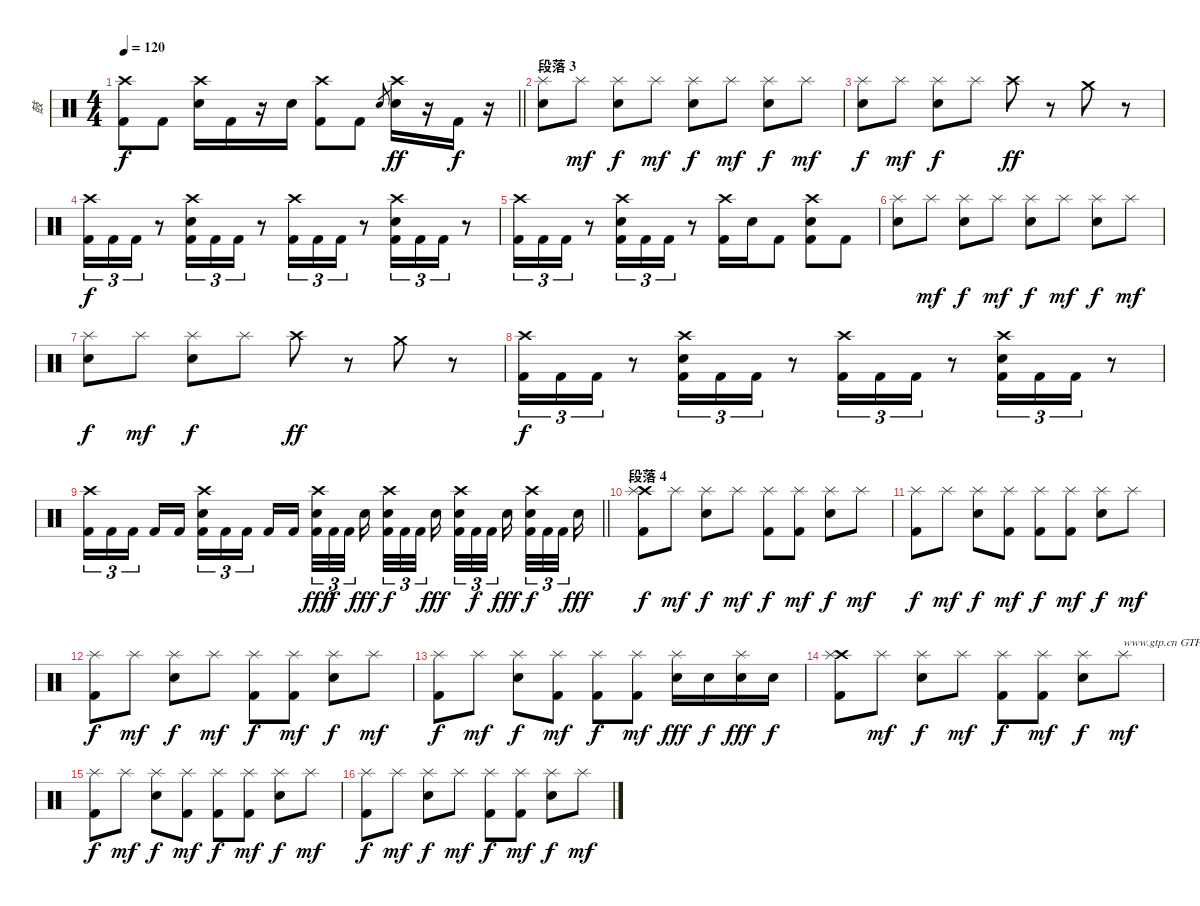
\track ("鼓" "鼓") {instrument percussion}
\staff {score}
\articulation defaults
\ts (4 4)
\tempo 120
\clef neutral
\barLineRight lightlight
\ks c
("Crash high (hit)" "Kick (hit) 2").8{dy f} "Kick (hit) 2".8 ("Crash high (hit)" "Electric Snare (hit)").16 "Kick (hit) 2".16 r.16 "Electric Snare (hit)".16 ("Crash high (hit)" "Kick (hit) 2").8 "Kick (hit) 2".8 "Electric Snare (hit)".8{gr} ("Crash high (hit)" "Electric Snare (hit)").16{dy ff} r.16 "Kick (hit) 2".16{dy f} r.16 |
\section ("" "段落 3")
("Electric Snare (hit)" "Splash (hit)").8 "Splash (hit)".8{dy mf} ("Electric Snare (hit)" "Splash (hit)").8{dy f} "Splash (hit)".8{dy mf} ("Electric Snare (hit)" "Splash (hit)").8{dy f} "Splash (hit)".8{dy mf} ("Electric Snare (hit)" "Splash (hit)").8{dy f} "Splash (hit)".8{dy mf} |
("Electric Snare (hit)" "Splash (hit)").8{dy f} "Splash (hit)".8{dy mf} ("Electric Snare (hit)" "Splash (hit)").8{dy f} "Splash (hit)".8 "Crash high (hit)".8{dy ff} r.8 "Crash medium (hit)".8 r.8 |
("Crash high (hit)" "Kick (hit) 2").16{tu (3 2) dy f} "Kick (hit) 2".16{tu (3 2)} "Kick (hit) 2".16{tu (3 2)} r.8 ("Crash high (hit)" "Electric Snare (hit)" "Kick (hit) 2").16{tu (3 2)} "Kick (hit) 2".16{tu (3 2)} "Kick (hit) 2".16{tu (3 2)} r.8 ("Crash high (hit)" "Kick (hit) 2").16{tu (3 2)} "Kick (hit) 2".16{tu (3 2)} "Kick (hit) 2".16{tu (3 2)} r.8 ("Crash high (hit)" "Electric Snare (hit)" "Kick (hit) 2").16{tu (3 2)} "Kick (hit) 2".16{tu (3 2)} "Kick (hit) 2".16{tu (3 2)} r.8 |
("Crash high (hit)" "Kick (hit) 2").16{tu (3 2)} "Kick (hit) 2".16{tu (3 2)} "Kick (hit) 2".16{tu (3 2)} r.8 ("Crash high (hit)" "Electric Snare (hit)" "Kick (hit) 2").16{tu (3 2)} "Kick (hit) 2".16{tu (3 2)} "Kick (hit) 2".16{tu (3 2)} r.8 ("Crash high (hit)" "Kick (hit) 2").16 "Electric Snare (hit)".16 "Kick (hit) 2".8 ("Crash high (hit)" "Electric Snare (hit)" "Kick (hit) 2").8 "Kick (hit) 2".8 |
("Electric Snare (hit)" "Splash (hit)").8 "Splash (hit)".8{dy mf} ("Electric Snare (hit)" "Splash (hit)").8{dy f} "Splash (hit)".8{dy mf} ("Electric Snare (hit)" "Splash (hit)").8{dy f} "Splash (hit)".8{dy mf} ("Electric Snare (hit)" "Splash (hit)").8{dy f} "Splash (hit)".8{dy mf} |
("Electric Snare (hit)" "Splash (hit)").8{dy f} "Splash (hit)".8{dy mf} ("Electric Snare (hit)" "Splash (hit)").8{dy f} "Splash (hit)".8 "Crash high (hit)".8{dy ff} r.8 "Crash medium (hit)".8 r.8 |
("Crash high (hit)" "Kick (hit) 2").16{tu (3 2) dy f} "Kick (hit) 2".16{tu (3 2)} "Kick (hit) 2".16{tu (3 2)} r.8 ("Crash high (hit)" "Electric Snare (hit)" "Kick (hit) 2").16{tu (3 2)} "Kick (hit) 2".16{tu (3 2)} "Kick (hit) 2".16{tu (3 2)} r.8 ("Crash high (hit)" "Kick (hit) 2").16{tu (3 2)} "Kick (hit) 2".16{tu (3 2)} "Kick (hit) 2".16{tu (3 2)} r.8 ("Crash high (hit)" "Electric Snare (hit)" "Kick (hit) 2").16{tu (3 2)} "Kick (hit) 2".16{tu (3 2)} "Kick (hit) 2".16{tu (3 2)} r.8 |
\barLineRight lightlight
("Crash high (hit)" "Kick (hit) 2").16{tu (3 2)} "Kick (hit) 2".16{tu (3 2)} "Kick (hit) 2".16{tu (3 2) beam splitsecondary} "Kick (hit) 2".16 "Kick (hit) 2".16 ("Crash high (hit)" "Electric Snare (hit)" "Kick (hit) 2").16{tu (3 2)} "Kick (hit) 2".16{tu (3 2)} "Kick (hit) 2".16{tu (3 2) beam splitsecondary} "Kick (hit) 2".16 "Kick (hit) 2".16 ("Crash high (hit)" "Electric Snare (hit)" "Kick (hit) 2").32{tu (3 2) dy fff} "Kick (hit) 2".32{tu (3 2) dy f} "Kick (hit) 2".32{tu (3 2) beam splitsecondary} "Electric Snare (hit)".16{dy fff beam splitsecondary} ("Crash high (hit)" "Electric Snare (hit)" "Kick (hit) 2").32{tu (3 2) dy f} "Kick (hit) 2".32{tu (3 2)} "Kick (hit) 2".32{tu (3 2) beam splitsecondary} "Electric Snare (hit)".16{dy fff} ("Crash high (hit)" "Electric Snare (hit)" "Kick (hit) 2").32{tu (3 2)} "Kick (hit) 2".32{tu (3 2) dy f} "Kick (hit) 2".32{tu (3 2) beam splitsecondary} "Electric Snare (hit)".16{dy fff beam splitsecondary} ("Crash high (hit)" "Electric Snare (hit)" "Kick (hit) 2").32{tu (3 2) dy f} "Kick (hit) 2".32{tu (3 2)} "Kick (hit) 2".32{tu (3 2) beam splitsecondary} "Electric Snare (hit)".16{dy fff} |
\section ("" "段落 4")
("Crash high (hit)" "Kick (hit) 2" "Splash (hit)").8{dy f} "Splash (hit)".8{dy mf} ("Electric Snare (hit)" "Splash (hit)").8{dy f} "Splash (hit)".8{dy mf} ("Kick (hit) 2" "Splash (hit)").8{dy f} ("Kick (hit) 2" "Splash (hit)").8{dy mf} ("Electric Snare (hit)" "Splash (hit)").8{dy f} "Splash (hit)".8{dy mf} |
("Kick (hit) 2" "Splash (hit)").8{dy f} "Splash (hit)".8{dy mf} ("Electric Snare (hit)" "Splash (hit)").8{dy f} ("Kick (hit) 2" "Splash (hit)").8{dy mf} ("Kick (hit) 2" "Splash (hit)").8{dy f} ("Kick (hit) 2" "Splash (hit)").8{dy mf} ("Electric Snare (hit)" "Splash (hit)").8{dy f} "Splash (hit)".8{dy mf} |
("Kick (hit) 2" "Splash (hit)").8{dy f} "Splash (hit)".8{dy mf} ("Electric Snare (hit)" "Splash (hit)").8{dy f} "Splash (hit)".8{dy mf} ("Kick (hit) 2" "Splash (hit)").8{dy f} ("Kick (hit) 2" "Splash (hit)").8{dy mf} ("Electric Snare (hit)" "Splash (hit)").8{dy f} "Splash (hit)".8{dy mf} |
("Kick (hit) 2" "Splash (hit)").8{dy f} "Splash (hit)".8{dy mf} ("Electric Snare (hit)" "Splash (hit)").8{dy f} ("Kick (hit) 2" "Splash (hit)").8{dy mf} ("Kick (hit) 2" "Splash (hit)").8{dy f} ("Kick (hit) 2" "Splash (hit)").8{dy mf} ("Electric Snare (hit)" "Splash (hit)").16{dy fff} "Electric Snare (hit)".16{dy f} ("Electric Snare (hit)" "Splash (hit)").16{dy fff} "Electric Snare (hit)".16{dy f} |
("Crash high (hit)" "Kick (hit) 2" "Splash (hit)").8 "Splash (hit)".8{dy mf} ("Electric Snare (hit)" "Splash (hit)").8{dy f} "Splash (hit)".8{dy mf} ("Kick (hit) 2" "Splash (hit)").8{dy f} ("Kick (hit) 2" "Splash (hit)").8{dy mf} ("Electric Snare (hit)" "Splash (hit)").8{dy f} "Splash (hit)".8{txt "www.gtp.cn GTP中文娱乐网为您提供优秀的谱子" dy mf} |
("Kick (hit) 2" "Splash (hit)").8{dy f} "Splash (hit)".8{dy mf} ("Electric Snare (hit)" "Splash (hit)").8{dy f} ("Kick (hit) 2" "Splash (hit)").8{dy mf} ("Kick (hit) 2" "Splash (hit)").8{dy f} ("Kick (hit) 2" "Splash (hit)").8{dy mf} ("Electric Snare (hit)" "Splash (hit)").8{dy f} "Splash (hit)".8{dy mf} |
("Kick (hit) 2" "Splash (hit)").8{dy f} "Splash (hit)".8{dy mf} ("Electric Snare (hit)" "Splash (hit)").8{dy f} "Splash (hit)".8{dy mf} ("Kick (hit) 2" "Splash (hit)").8{dy f} ("Kick (hit) 2" "Splash (hit)").8{dy mf} ("Electric Snare (hit)" "Splash (hit)").8{dy f} "Splash (hit)".8{dy mf}
